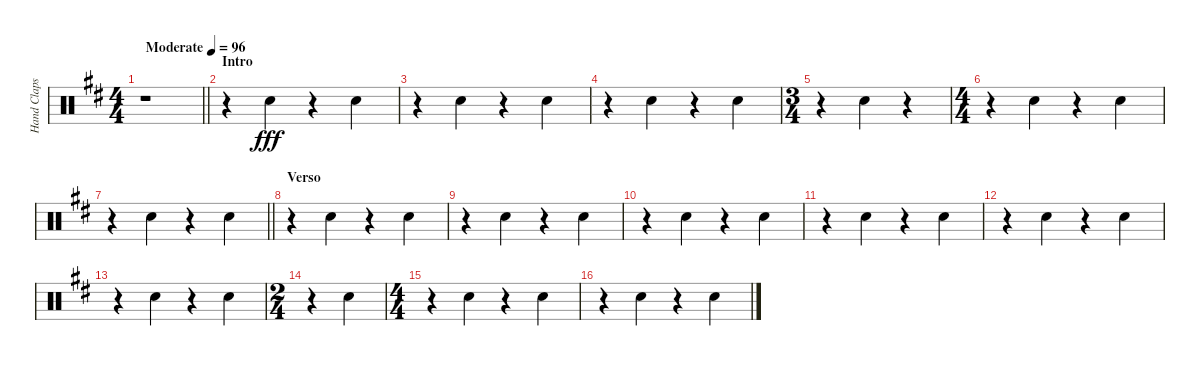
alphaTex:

\track ("Hand Claps" "Hand Claps") {instrument percussion}
\staff {score}
\articulation defaults
\ts (4 4)
\tempo (96 "Moderate")
\clef neutral
\barLineRight lightlight
\ks d
r.1{dy fff} |
\section ("" "Intro")
r.4 "Hand Clap (hit)".4 r.4 "Hand Clap (hit)".4 |
r.4 "Hand Clap (hit)".4 r.4 "Hand Clap (hit)".4 |
r.4 "Hand Clap (hit)".4 r.4 "Hand Clap (hit)".4 |
\ts (3 4)
r.4 "Hand Clap (hit)".4 r.4 |
\ts (4 4)
r.4 "Hand Clap (hit)".4 r.4 "Hand Clap (hit)".4 |
\barLineRight lightlight
r.4 "Hand Clap (hit)".4 r.4 "Hand Clap (hit)".4 |
\section ("" "Verso")
r.4 "Hand Clap (hit)".4 r.4 "Hand Clap (hit)".4 |
r.4 "Hand Clap (hit)".4 r.4 "Hand Clap (hit)".4 |
r.4 "Hand Clap (hit)".4 r.4 "Hand Clap (hit)".4 |
r.4 "Hand Clap (hit)".4 r.4 "Hand Clap (hit)".4 |
r.4 "Hand Clap (hit)".4 r.4 "Hand Clap (hit)".4 |
r.4 "Hand Clap (hit)".4 r.4 "Hand Clap (hit)".4 |
\ts (2 4)
r.4 "Hand Clap (hit)".4 |
\ts (4 4)
r.4 "Hand Clap (hit)".4 r.4 "Hand Clap (hit)".4 |
r.4 "Hand Clap (hit)".4 r.4 "Hand Clap (hit)".4
